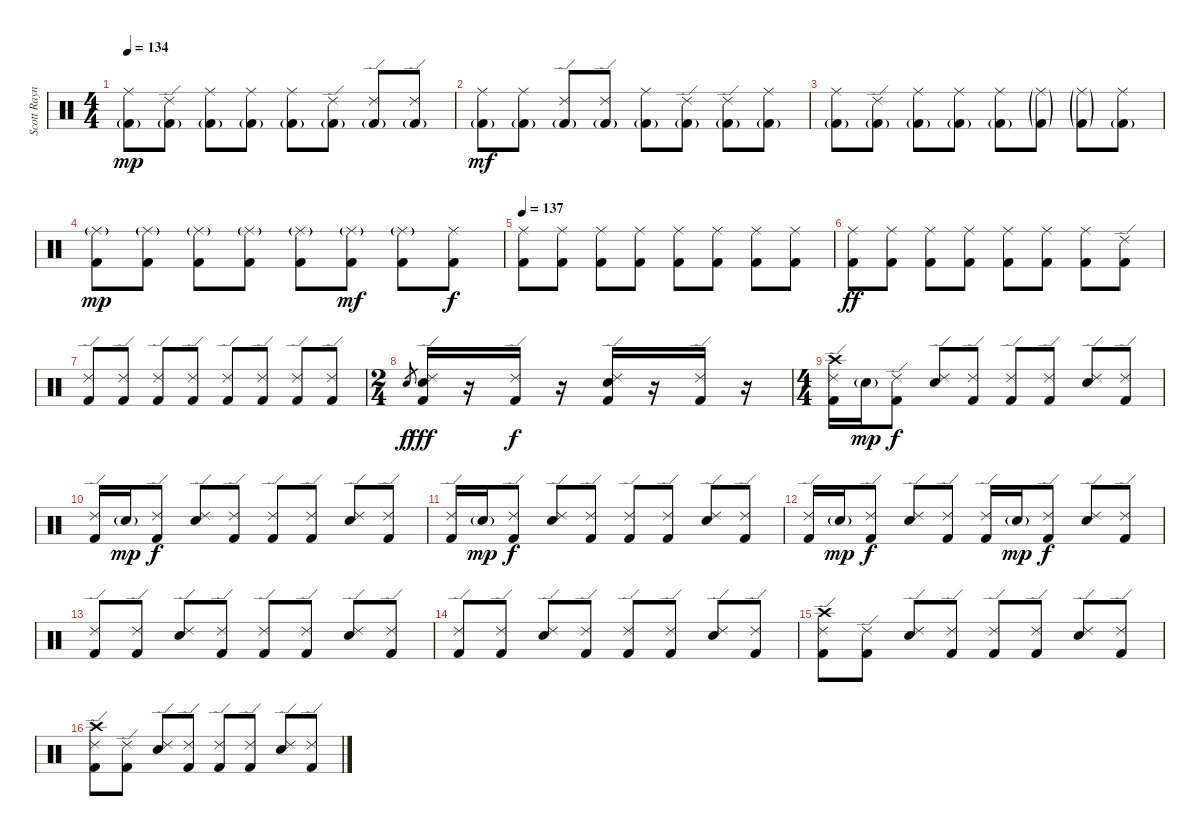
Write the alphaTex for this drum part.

\track ("Scott Raynor" "Scott Rayn") {instrument percussion}
\staff {score}
\articulation defaults
\ts (4 4)
\tempo 134
\clef neutral
\ks c
("Ride (middle)" "Kick (hit) 2"{g}).8{dy mp volume 10} ("Ride (edge) 2" "Kick (hit) 2"{g}).8 ("Ride (middle)" "Kick (hit) 2"{g}).8 ("Ride (middle)" "Kick (hit) 2"{g}).8 ("Ride (middle)" "Kick (hit) 2"{g}).8 ("Ride (edge) 2" "Kick (hit) 2"{g}).8 ("Ride (edge) 2" "Kick (hit) 2"{g}).8 ("Ride (edge) 2" "Kick (hit) 2"{g}).8 |
("Ride (middle)" "Kick (hit) 2"{g}).8{dy mf} ("Ride (middle)" "Kick (hit) 2"{g}).8 ("Ride (edge) 2" "Kick (hit) 2"{g}).8 ("Ride (edge) 2" "Kick (hit) 2"{g}).8 ("Ride (middle)" "Kick (hit) 2"{g}).8 ("Ride (edge) 2" "Kick (hit) 2"{g}).8 ("Ride (edge) 2" "Kick (hit) 2"{g}).8 ("Ride (middle)" "Kick (hit) 2"{g}).8 |
("Ride (middle)" "Kick (hit) 2"{g}).8 ("Ride (edge) 2" "Kick (hit) 2"{g}).8 ("Ride (middle)" "Kick (hit) 2"{g}).8 ("Ride (middle)" "Kick (hit) 2"{g}).8 ("Ride (middle)" "Kick (hit) 2"{g}).8 ("Ride (middle)"{g} "Kick (hit) 2"{g}).8 ("Ride (middle)"{g} "Kick (hit) 2"{g}).8 ("Ride (middle)" "Kick (hit) 2"{g}).8 |
("Ride (middle)"{g} "Kick (hit) 2").8{dy mp} ("Ride (middle)"{g} "Kick (hit) 2").8 ("Ride (middle)"{g} "Kick (hit) 2").8 ("Ride (middle)"{g} "Kick (hit) 2").8 ("Ride (middle)"{g} "Kick (hit) 2").8 ("Ride (middle)"{g} "Kick (hit) 2").8{dy mf} ("Ride (middle)"{g} "Kick (hit) 2").8 ("Ride (middle)" "Kick (hit) 2").8{dy f} |
\tempo 137
("Ride (middle)" "Kick (hit) 2").8{volume 12} ("Ride (middle)" "Kick (hit) 2").8 ("Ride (middle)" "Kick (hit) 2").8 ("Ride (middle)" "Kick (hit) 2").8 ("Ride (middle)" "Kick (hit) 2").8 ("Ride (middle)" "Kick (hit) 2").8 ("Ride (middle)" "Kick (hit) 2").8 ("Ride (middle)" "Kick (hit) 2").8 |
("Ride (middle)" "Kick (hit) 2").8{dy ff} ("Ride (middle)" "Kick (hit) 2").8 ("Ride (middle)" "Kick (hit) 2").8 ("Ride (middle)" "Kick (hit) 2").8 ("Ride (middle)" "Kick (hit) 2").8 ("Ride (middle)" "Kick (hit) 2").8 ("Ride (middle)" "Kick (hit) 2").8 ("Ride (edge) 2" "Kick (hit) 2").8 |
("Ride (edge) 2" "Kick (hit) 2").8 ("Ride (edge) 2" "Kick (hit) 2").8 ("Ride (edge) 2" "Kick (hit) 2").8 ("Ride (edge) 2" "Kick (hit) 2").8 ("Ride (edge) 2" "Kick (hit) 2").8 ("Ride (edge) 2" "Kick (hit) 2").8 ("Ride (edge) 2" "Kick (hit) 2").8 ("Ride (edge) 2" "Kick (hit) 2").8 |
\ts (2 4)
"Snare (hit) 2".8{gr dy f} ("Ride (edge) 2" "Snare (hit) 2" "Kick (hit) 2").16{dy fff} r.16 ("Ride (edge) 2" "Kick (hit) 2").16{dy f} r.16 ("Ride (edge) 2" "Snare (hit) 2" "Kick (hit) 2").16 r.16 ("Ride (edge) 2" "Kick (hit) 2").16 r.16 |
\ts (4 4)
("Crash high (hit)" "Ride (edge) 2" "Kick (hit) 2").16 "Snare (hit) 2"{g}.16{dy mp} ("Ride (edge) 2" "Kick (hit) 2").8{dy f} ("Ride (edge) 2" "Snare (hit) 2").8 ("Ride (edge) 2" "Kick (hit) 2").8 ("Ride (edge) 2" "Kick (hit) 2").8 ("Ride (edge) 2" "Kick (hit) 2").8 ("Ride (edge) 2" "Snare (hit) 2").8 ("Ride (edge) 2" "Kick (hit) 2").8 |
("Ride (edge) 2" "Kick (hit) 2").16 "Snare (hit) 2"{g}.16{dy mp} ("Ride (edge) 2" "Kick (hit) 2").8{dy f} ("Ride (edge) 2" "Snare (hit) 2").8 ("Ride (edge) 2" "Kick (hit) 2").8 ("Ride (edge) 2" "Kick (hit) 2").8 ("Ride (edge) 2" "Kick (hit) 2").8 ("Ride (edge) 2" "Snare (hit) 2").8 ("Ride (edge) 2" "Kick (hit) 2").8 |
("Ride (edge) 2" "Kick (hit) 2").16 "Snare (hit) 2"{g}.16{dy mp} ("Ride (edge) 2" "Kick (hit) 2").8{dy f} ("Ride (edge) 2" "Snare (hit) 2").8 ("Ride (edge) 2" "Kick (hit) 2").8 ("Ride (edge) 2" "Kick (hit) 2").8 ("Ride (edge) 2" "Kick (hit) 2").8 ("Ride (edge) 2" "Snare (hit) 2").8 ("Ride (edge) 2" "Kick (hit) 2").8 |
("Ride (edge) 2" "Kick (hit) 2").16 "Snare (hit) 2"{g}.16{dy mp} ("Ride (edge) 2" "Kick (hit) 2").8{dy f} ("Ride (edge) 2" "Snare (hit) 2").8 ("Ride (edge) 2" "Kick (hit) 2").8 ("Ride (edge) 2" "Kick (hit) 2").16 "Snare (hit) 2"{g}.16{dy mp} ("Ride (edge) 2" "Kick (hit) 2").8{dy f} ("Ride (edge) 2" "Snare (hit) 2").8 ("Ride (edge) 2" "Kick (hit) 2").8 |
("Ride (edge) 2" "Kick (hit) 2").8 ("Ride (edge) 2" "Kick (hit) 2").8 ("Ride (edge) 2" "Snare (hit) 2").8 ("Ride (edge) 2" "Kick (hit) 2").8 ("Ride (edge) 2" "Kick (hit) 2").8 ("Ride (edge) 2" "Kick (hit) 2").8 ("Ride (edge) 2" "Snare (hit) 2").8 ("Ride (edge) 2" "Kick (hit) 2").8 |
("Ride (edge) 2" "Kick (hit) 2").8 ("Ride (edge) 2" "Kick (hit) 2").8 ("Ride (edge) 2" "Snare (hit) 2").8 ("Ride (edge) 2" "Kick (hit) 2").8 ("Ride (edge) 2" "Kick (hit) 2").8 ("Ride (edge) 2" "Kick (hit) 2").8 ("Ride (edge) 2" "Snare (hit) 2").8 ("Ride (edge) 2" "Kick (hit) 2").8 |
("Crash high (hit)" "Ride (edge) 2" "Kick (hit) 2").8 ("Ride (edge) 2" "Kick (hit) 2").8 ("Ride (edge) 2" "Snare (hit) 2").8 ("Ride (edge) 2" "Kick (hit) 2").8 ("Ride (edge) 2" "Kick (hit) 2").8 ("Ride (edge) 2" "Kick (hit) 2").8 ("Ride (edge) 2" "Snare (hit) 2").8 ("Ride (edge) 2" "Kick (hit) 2").8 |
("Crash high (hit)" "Ride (edge) 2" "Kick (hit) 2").8 ("Ride (edge) 2" "Kick (hit) 2").8 ("Ride (edge) 2" "Snare (hit) 2").8 ("Ride (edge) 2" "Kick (hit) 2").8 ("Ride (edge) 2" "Kick (hit) 2").8 ("Ride (edge) 2" "Kick (hit) 2").8 ("Ride (edge) 2" "Snare (hit) 2").8 ("Ride (edge) 2" "Kick (hit) 2").8
